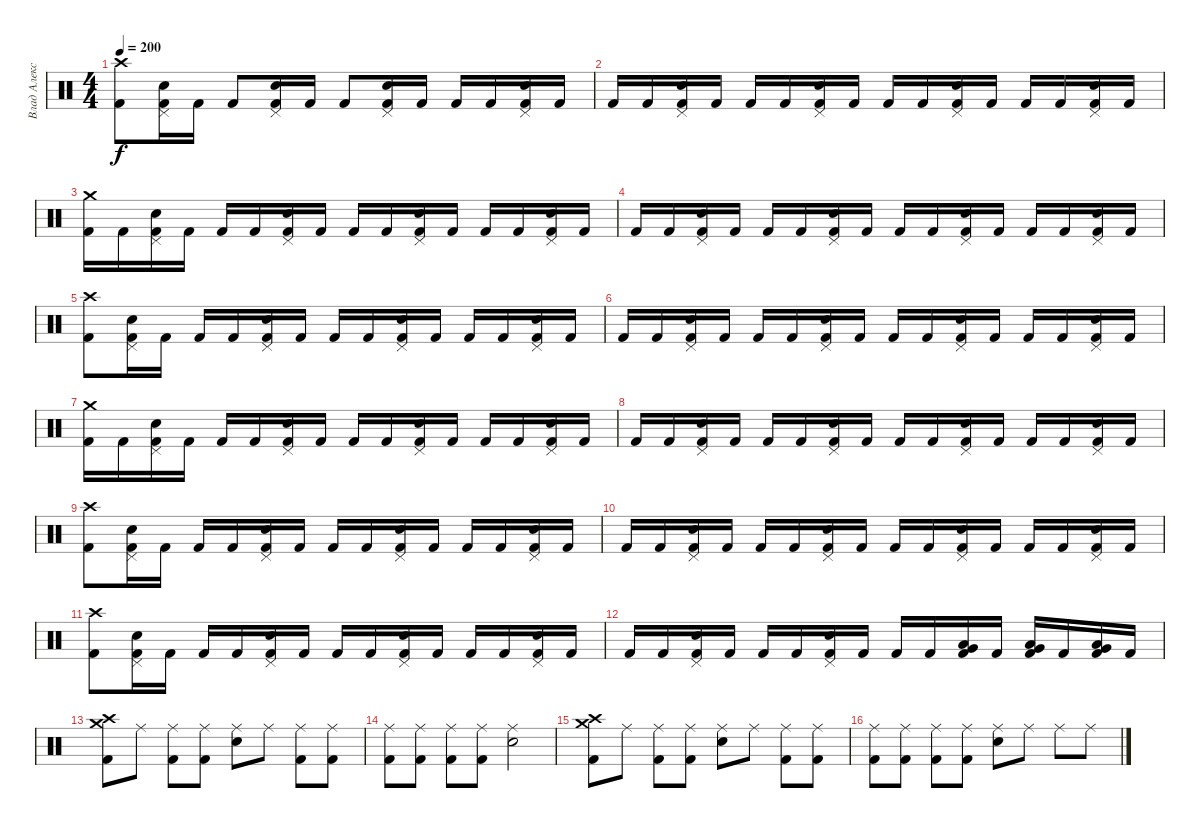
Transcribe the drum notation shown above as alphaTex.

\track ("Влад Алексеенко" "Влад Алекс") {instrument percussion}
\staff {score}
\articulation defaults
\ts (4 4)
\tempo 200
\clef neutral
\ks c
("Kick (hit) 2" "Crash high (hit)").8{dy f} ("Kick (hit) 2" "Electric Snare (hit)" "Pedal Hi-Hat (hit)").16 "Kick (hit) 2".16 "Kick (hit) 2".8 ("Kick (hit) 2" "Electric Snare (hit)" "Pedal Hi-Hat (hit)").16 "Kick (hit) 2".16 "Kick (hit) 2".8 ("Kick (hit) 2" "Electric Snare (hit)" "Pedal Hi-Hat (hit)").16 "Kick (hit) 2".16 "Kick (hit) 2".16 "Kick (hit) 2".16 ("Kick (hit) 2" "Electric Snare (hit)" "Pedal Hi-Hat (hit)").16 "Kick (hit) 2".16 |
"Kick (hit) 2".16 "Kick (hit) 2".16 ("Kick (hit) 2" "Electric Snare (hit)" "Pedal Hi-Hat (hit)").16 "Kick (hit) 2".16 "Kick (hit) 2".16 "Kick (hit) 2".16 ("Kick (hit) 2" "Electric Snare (hit)" "Pedal Hi-Hat (hit)").16 "Kick (hit) 2".16 "Kick (hit) 2".16 "Kick (hit) 2".16 ("Kick (hit) 2" "Electric Snare (hit)" "Pedal Hi-Hat (hit)").16 "Kick (hit) 2".16 "Kick (hit) 2".16 "Kick (hit) 2".16 ("Kick (hit) 2" "Electric Snare (hit)" "Pedal Hi-Hat (hit)").16 "Kick (hit) 2".16 |
("Kick (hit) 2" "Crash medium (hit)").16 "Kick (hit) 2".16 ("Kick (hit) 2" "Electric Snare (hit)" "Pedal Hi-Hat (hit)").16 "Kick (hit) 2".16 "Kick (hit) 2".16 "Kick (hit) 2".16 ("Kick (hit) 2" "Electric Snare (hit)" "Pedal Hi-Hat (hit)").16 "Kick (hit) 2".16 "Kick (hit) 2".16 "Kick (hit) 2".16 ("Kick (hit) 2" "Electric Snare (hit)" "Pedal Hi-Hat (hit)").16 "Kick (hit) 2".16 "Kick (hit) 2".16 "Kick (hit) 2".16 ("Kick (hit) 2" "Electric Snare (hit)" "Pedal Hi-Hat (hit)").16 "Kick (hit) 2".16 |
"Kick (hit) 2".16 "Kick (hit) 2".16 ("Kick (hit) 2" "Electric Snare (hit)" "Pedal Hi-Hat (hit)").16 "Kick (hit) 2".16 "Kick (hit) 2".16 "Kick (hit) 2".16 ("Kick (hit) 2" "Electric Snare (hit)" "Pedal Hi-Hat (hit)").16 "Kick (hit) 2".16 "Kick (hit) 2".16 "Kick (hit) 2".16 ("Kick (hit) 2" "Electric Snare (hit)" "Pedal Hi-Hat (hit)").16 "Kick (hit) 2".16 "Kick (hit) 2".16 "Kick (hit) 2".16 ("Kick (hit) 2" "Electric Snare (hit)" "Pedal Hi-Hat (hit)").16 "Kick (hit) 2".16 |
("Kick (hit) 2" "Crash high (hit)").8 ("Kick (hit) 2" "Electric Snare (hit)" "Pedal Hi-Hat (hit)").16 "Kick (hit) 2".16 "Kick (hit) 2".16 "Kick (hit) 2".16 ("Kick (hit) 2" "Electric Snare (hit)" "Pedal Hi-Hat (hit)").16 "Kick (hit) 2".16 "Kick (hit) 2".16 "Kick (hit) 2".16 ("Kick (hit) 2" "Electric Snare (hit)" "Pedal Hi-Hat (hit)").16 "Kick (hit) 2".16 "Kick (hit) 2".16 "Kick (hit) 2".16 ("Kick (hit) 2" "Electric Snare (hit)" "Pedal Hi-Hat (hit)").16 "Kick (hit) 2".16 |
"Kick (hit) 2".16 "Kick (hit) 2".16 ("Kick (hit) 2" "Electric Snare (hit)" "Pedal Hi-Hat (hit)").16 "Kick (hit) 2".16 "Kick (hit) 2".16 "Kick (hit) 2".16 ("Kick (hit) 2" "Electric Snare (hit)" "Pedal Hi-Hat (hit)").16 "Kick (hit) 2".16 "Kick (hit) 2".16 "Kick (hit) 2".16 ("Kick (hit) 2" "Electric Snare (hit)" "Pedal Hi-Hat (hit)").16 "Kick (hit) 2".16 "Kick (hit) 2".16 "Kick (hit) 2".16 ("Kick (hit) 2" "Electric Snare (hit)" "Pedal Hi-Hat (hit)").16 "Kick (hit) 2".16 |
("Kick (hit) 2" "Crash medium (hit)").16 "Kick (hit) 2".16 ("Kick (hit) 2" "Electric Snare (hit)" "Pedal Hi-Hat (hit)").16 "Kick (hit) 2".16 "Kick (hit) 2".16 "Kick (hit) 2".16 ("Kick (hit) 2" "Electric Snare (hit)" "Pedal Hi-Hat (hit)").16 "Kick (hit) 2".16 "Kick (hit) 2".16 "Kick (hit) 2".16 ("Kick (hit) 2" "Electric Snare (hit)" "Pedal Hi-Hat (hit)").16 "Kick (hit) 2".16 "Kick (hit) 2".16 "Kick (hit) 2".16 ("Kick (hit) 2" "Electric Snare (hit)" "Pedal Hi-Hat (hit)").16 "Kick (hit) 2".16 |
"Kick (hit) 2".16 "Kick (hit) 2".16 ("Kick (hit) 2" "Electric Snare (hit)" "Pedal Hi-Hat (hit)").16 "Kick (hit) 2".16 "Kick (hit) 2".16 "Kick (hit) 2".16 ("Kick (hit) 2" "Electric Snare (hit)" "Pedal Hi-Hat (hit)").16 "Kick (hit) 2".16 "Kick (hit) 2".16 "Kick (hit) 2".16 ("Kick (hit) 2" "Electric Snare (hit)" "Pedal Hi-Hat (hit)").16 "Kick (hit) 2".16 "Kick (hit) 2".16 "Kick (hit) 2".16 ("Kick (hit) 2" "Electric Snare (hit)" "Pedal Hi-Hat (hit)").16 "Kick (hit) 2".16 |
("Kick (hit) 2" "Crash high (hit)").8 ("Kick (hit) 2" "Electric Snare (hit)" "Pedal Hi-Hat (hit)").16 "Kick (hit) 2".16 "Kick (hit) 2".16 "Kick (hit) 2".16 ("Kick (hit) 2" "Electric Snare (hit)" "Pedal Hi-Hat (hit)").16 "Kick (hit) 2".16 "Kick (hit) 2".16 "Kick (hit) 2".16 ("Kick (hit) 2" "Electric Snare (hit)" "Pedal Hi-Hat (hit)").16 "Kick (hit) 2".16 "Kick (hit) 2".16 "Kick (hit) 2".16 ("Kick (hit) 2" "Electric Snare (hit)" "Pedal Hi-Hat (hit)").16 "Kick (hit) 2".16 |
"Kick (hit) 2".16 "Kick (hit) 2".16 ("Kick (hit) 2" "Electric Snare (hit)" "Pedal Hi-Hat (hit)").16 "Kick (hit) 2".16 "Kick (hit) 2".16 "Kick (hit) 2".16 ("Kick (hit) 2" "Electric Snare (hit)" "Pedal Hi-Hat (hit)").16 "Kick (hit) 2".16 "Kick (hit) 2".16 "Kick (hit) 2".16 ("Kick (hit) 2" "Electric Snare (hit)" "Pedal Hi-Hat (hit)").16 "Kick (hit) 2".16 "Kick (hit) 2".16 "Kick (hit) 2".16 ("Kick (hit) 2" "Electric Snare (hit)" "Pedal Hi-Hat (hit)").16 "Kick (hit) 2".16 |
("Kick (hit) 2" "Crash high (hit)").8 ("Kick (hit) 2" "Electric Snare (hit)" "Pedal Hi-Hat (hit)").16 "Kick (hit) 2".16 "Kick (hit) 2".16 "Kick (hit) 2".16 ("Kick (hit) 2" "Electric Snare (hit)" "Pedal Hi-Hat (hit)").16 "Kick (hit) 2".16 "Kick (hit) 2".16 "Kick (hit) 2".16 ("Kick (hit) 2" "Electric Snare (hit)" "Pedal Hi-Hat (hit)").16 "Kick (hit) 2".16 "Kick (hit) 2".16 "Kick (hit) 2".16 ("Kick (hit) 2" "Electric Snare (hit)" "Pedal Hi-Hat (hit)").16 "Kick (hit) 2".16 |
"Kick (hit) 2".16 "Kick (hit) 2".16 ("Kick (hit) 2" "Electric Snare (hit)" "Pedal Hi-Hat (hit)").16 "Kick (hit) 2".16 "Kick (hit) 2".16 "Kick (hit) 2".16 ("Kick (hit) 2" "Electric Snare (hit)" "Pedal Hi-Hat (hit)").16 "Kick (hit) 2".16 "Kick (hit) 2".16 "Kick (hit) 2".16 ("Kick (hit) 2" "Very Low Tom (hit)" "Low Tom (hit)").16 "Kick (hit) 2".16 ("Kick (hit) 2" "Very Low Tom (hit)" "Low Tom (hit)").16 "Kick (hit) 2".16 ("Kick (hit) 2" "Very Low Tom (hit)" "Low Tom (hit)").16 "Kick (hit) 2".16 |
("Crash high (hit)" "Crash medium (hit)" "Kick (hit) 2").8 "Ride (middle)".8 ("Ride (middle)" "Kick (hit) 2").8 ("Ride (middle)" "Kick (hit) 2").8 ("Ride (middle)" "Electric Snare (hit)").8 "Ride (middle)".8 ("Ride (middle)" "Kick (hit) 2").8 ("Ride (middle)" "Kick (hit) 2").8 |
("Ride (middle)" "Kick (hit) 2").8 ("Ride (middle)" "Kick (hit) 2").8 ("Ride (middle)" "Kick (hit) 2").8 ("Ride (middle)" "Kick (hit) 2").8 ("Ride (middle)" "Electric Snare (hit)").2 |
("Crash high (hit)" "Crash medium (hit)" "Kick (hit) 2").8 "Ride (middle)".8 ("Ride (middle)" "Kick (hit) 2").8 ("Ride (middle)" "Kick (hit) 2").8 ("Ride (middle)" "Electric Snare (hit)").8 "Ride (middle)".8 ("Ride (middle)" "Kick (hit) 2").8 ("Ride (middle)" "Kick (hit) 2").8 |
("Ride (middle)" "Kick (hit) 2").8 ("Ride (middle)" "Kick (hit) 2").8 ("Ride (middle)" "Kick (hit) 2").8 ("Ride (middle)" "Kick (hit) 2").8 ("Ride (middle)" "Electric Snare (hit)").8 "Ride (middle)".8 "Ride (middle)".8 "Ride (middle)".8
